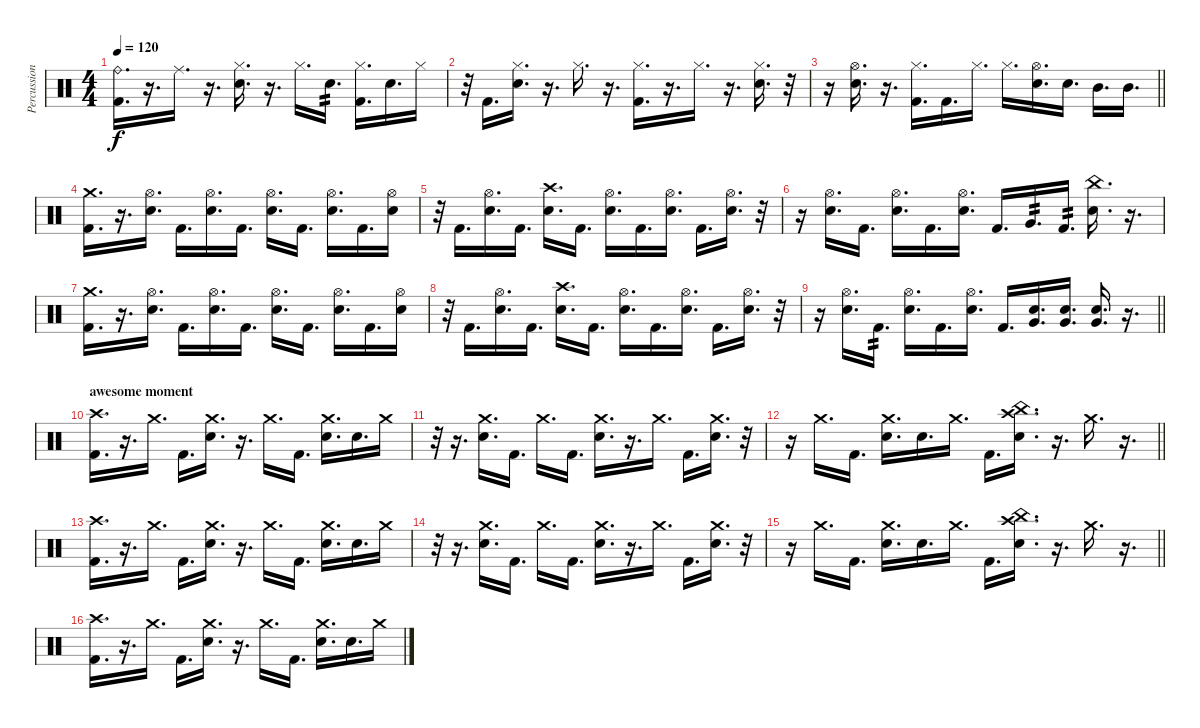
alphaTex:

\track ("Percussion" "Percussion") {instrument percussion}
\staff
\articulation defaults
\ts (4 4)
\tempo 120
\clef neutral
\ks c
("Ride (bell)" "Kick (hit) 2").16{d dy f} r.16{d} "Ride (middle)".16{d} r.16{d} ("Hi-Hat (closed)" "Electric Snare (hit)").16{d} r.16{d} "Hi-Hat (closed)".16{d} "Electric Snare (hit)".16{d tp 2} ("Hi-Hat (closed)" "Kick (hit) 2").16{d} "Electric Snare (hit)".16{d} "Hi-Hat (closed)".16 |
r.32 "Kick (hit) 2".16{d} ("Hi-Hat (closed)" "Electric Snare (hit)").16{d} r.16{d} "Hi-Hat (closed)".16{d} r.16{d} ("Hi-Hat (closed)" "Kick (hit) 2").16{d} r.16{d} "Hi-Hat (closed)".16{d} r.16{d} ("Hi-Hat (closed)" "Electric Snare (hit)").16{d} r.32 |
\barLineRight lightlight
r.16 ("Hi-Hat (open)" "Electric Snare (hit)").16{d} r.16{d} ("Hi-Hat (closed)" "Kick (hit) 2").16{d} "Kick (hit) 2".16{d} "Hi-Hat (closed)".16{d} "Hi-Hat (closed)".16{d} ("Hi-Hat (open)" "Electric Snare (hit)").16{d} "Electric Snare (hit)".16{d} "Mid Tom (hit)".16{d} "Mid Tom (hit)".16{d} |
("Crash medium (hit)" "Kick (hit) 2").16{d} r.16{d} ("Hi-Hat (open)" "Electric Snare (hit)").16{d} "Kick (hit) 2".16{d} ("Hi-Hat (open)" "Electric Snare (hit)").16{d} "Kick (hit) 2".16{d} ("Hi-Hat (open)" "Electric Snare (hit)").16{d} "Kick (hit) 2".16{d} ("Hi-Hat (open)" "Electric Snare (hit)").16{d} "Kick (hit) 2".16{d} ("Hi-Hat (open)" "Electric Snare (hit)").16 |
r.32 "Kick (hit) 2".16{d} ("Electric Snare (hit)" "Hi-Hat (open)").16{d} "Kick (hit) 2".16{d} ("Electric Snare (hit)" "Crash high (hit)").16{d} "Kick (hit) 2".16{d} ("Electric Snare (hit)" "Hi-Hat (open)").16{d} "Kick (hit) 2".16{d} ("Electric Snare (hit)" "Hi-Hat (open)").16{d} "Kick (hit) 2".16{d} ("Electric Snare (hit)" "Hi-Hat (open)").16{d} r.32 |
r.16 ("Electric Snare (hit)" "Hi-Hat (open)").16{d} "Kick (hit) 2".16{d} ("Electric Snare (hit)" "Hi-Hat (open)").16{d} "Kick (hit) 2".16{d} ("Electric Snare (hit)" "Hi-Hat (open)").16{d} "Kick (hit) 2".16{d} "Very Low Tom (hit)".16{d tp 2} "Kick (hit) 2".16{d tp 2} ("China (hit)" "Electric Snare (hit)").16{d} r.16{d} |
("Crash medium (hit)" "Kick (hit) 2").16{d} r.16{d} ("Hi-Hat (open)" "Electric Snare (hit)").16{d} "Kick (hit) 2".16{d} ("Hi-Hat (open)" "Electric Snare (hit)").16{d} "Kick (hit) 2".16{d} ("Hi-Hat (open)" "Electric Snare (hit)").16{d} "Kick (hit) 2".16{d} ("Hi-Hat (open)" "Electric Snare (hit)").16{d} "Kick (hit) 2".16{d} ("Hi-Hat (open)" "Electric Snare (hit)").16 |
r.32 "Kick (hit) 2".16{d} ("Electric Snare (hit)" "Hi-Hat (open)").16{d} "Kick (hit) 2".16{d} ("Electric Snare (hit)" "Crash high (hit)").16{d} "Kick (hit) 2".16{d} ("Electric Snare (hit)" "Hi-Hat (open)").16{d} "Kick (hit) 2".16{d} ("Electric Snare (hit)" "Hi-Hat (open)").16{d} "Kick (hit) 2".16{d} ("Electric Snare (hit)" "Hi-Hat (open)").16{d} r.32 |
\barLineRight lightlight
r.16 ("Electric Snare (hit)" "Hi-Hat (open)").16{d} "Kick (hit) 2".16{d tp 2} ("Electric Snare (hit)" "Hi-Hat (open)").16{d} "Kick (hit) 2".16{d} ("Electric Snare (hit)" "Hi-Hat (open)").16{d} "Kick (hit) 2".16{d} ("Very Low Tom (hit)" "Electric Snare (hit)").16{d} ("Very Low Tom (hit)" "Electric Snare (hit)").16{d} ("Very Low Tom (hit)" "Electric Snare (hit)").16{d} r.16{d} |
\section ("" "awesome moment")
("Crash high (hit)" "Kick (hit) 2").16{d} r.16{d} "Crash medium (hit)".16{d} "Kick (hit) 2".16{d} ("Crash medium (hit)" "Electric Snare (hit)").16{d} r.16{d} "Crash medium (hit)".16{d} "Kick (hit) 2".16{d} ("Crash medium (hit)" "Electric Snare (hit)").16{d} "Electric Snare (hit)".16{d} "Crash medium (hit)".16 |
r.32 r.16{d} ("Crash medium (hit)" "Electric Snare (hit)").16{d} "Kick (hit) 2".16{d} "Crash medium (hit)".16{d} "Kick (hit) 2".16{d} ("Crash medium (hit)" "Electric Snare (hit)").16{d} r.16{d} "Crash medium (hit)".16{d} "Kick (hit) 2".16{d} ("Crash medium (hit)" "Electric Snare (hit)").16{d} r.32 |
\barLineRight lightlight
r.16 "Crash medium (hit)".16{d} "Kick (hit) 2".16{d} ("Crash medium (hit)" "Electric Snare (hit)").16{d} "Electric Snare (hit)".16{d} "Crash medium (hit)".16{d} "Kick (hit) 2".16{d} ("Crash high (hit)" "China (hit)" "Electric Snare (hit)").16{d} r.16{d} "Crash medium (hit)".16{d} r.16{d} |
("Crash high (hit)" "Kick (hit) 2").16{d} r.16{d} "Crash medium (hit)".16{d} "Kick (hit) 2".16{d} ("Crash medium (hit)" "Electric Snare (hit)").16{d} r.16{d} "Crash medium (hit)".16{d} "Kick (hit) 2".16{d} ("Crash medium (hit)" "Electric Snare (hit)").16{d} "Electric Snare (hit)".16{d} "Crash medium (hit)".16 |
r.32 r.16{d} ("Crash medium (hit)" "Electric Snare (hit)").16{d} "Kick (hit) 2".16{d} "Crash medium (hit)".16{d} "Kick (hit) 2".16{d} ("Crash medium (hit)" "Electric Snare (hit)").16{d} r.16{d} "Crash medium (hit)".16{d} "Kick (hit) 2".16{d} ("Crash medium (hit)" "Electric Snare (hit)").16{d} r.32 |
\barLineRight lightlight
r.16 "Crash medium (hit)".16{d} "Kick (hit) 2".16{d} ("Crash medium (hit)" "Electric Snare (hit)").16{d} "Electric Snare (hit)".16{d} "Crash medium (hit)".16{d} "Kick (hit) 2".16{d} ("Crash high (hit)" "China (hit)" "Electric Snare (hit)").16{d} r.16{d} "Crash medium (hit)".16{d} r.16{d} |
("Crash high (hit)" "Kick (hit) 2").16{d} r.16{d} "Crash medium (hit)".16{d} "Kick (hit) 2".16{d} ("Crash medium (hit)" "Electric Snare (hit)").16{d} r.16{d} "Crash medium (hit)".16{d} "Kick (hit) 2".16{d} ("Crash medium (hit)" "Electric Snare (hit)").16{d} "Electric Snare (hit)".16{d} "Crash medium (hit)".16
